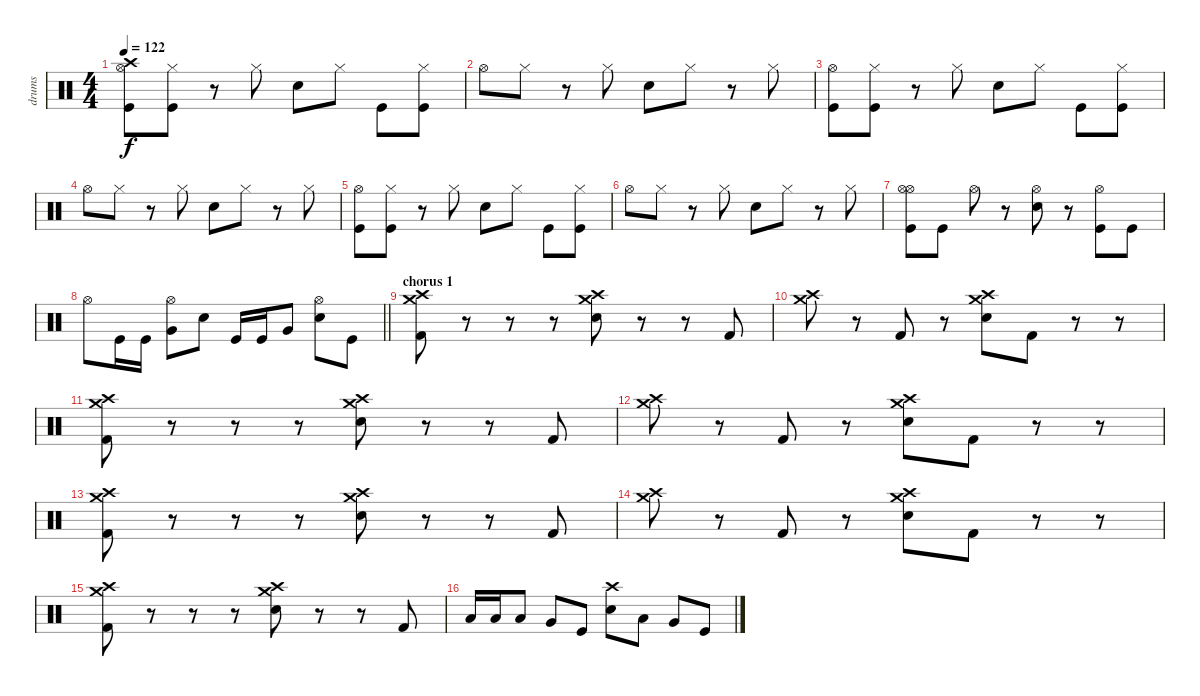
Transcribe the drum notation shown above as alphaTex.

\track ("drums" "drums") {instrument percussion}
\staff {score}
\articulation defaults
\ts (4 4)
\tempo 122
\clef neutral
\ks c
("Crash high (hit)" "Hi-Hat (open)" "Kick (hit)").8{dy f} ("Hi-Hat (closed)" "Kick (hit)").8 r.8 "Hi-Hat (closed)".8 "Electric Snare (hit)".8 "Hi-Hat (closed)".8 "Kick (hit)".8 ("Hi-Hat (closed)" "Kick (hit)").8 |
"Hi-Hat (open)".8 "Hi-Hat (closed)".8 r.8 "Hi-Hat (closed)".8 "Electric Snare (hit)".8 "Hi-Hat (closed)".8 r.8 "Hi-Hat (closed)".8 |
("Hi-Hat (open)" "Kick (hit)").8 ("Hi-Hat (closed)" "Kick (hit)").8 r.8 "Hi-Hat (closed)".8 "Electric Snare (hit)".8 "Hi-Hat (closed)".8 "Kick (hit)".8 ("Hi-Hat (closed)" "Kick (hit)").8 |
"Hi-Hat (open)".8 "Hi-Hat (closed)".8 r.8 "Hi-Hat (closed)".8 "Electric Snare (hit)".8 "Hi-Hat (closed)".8 r.8 "Hi-Hat (closed)".8 |
("Hi-Hat (open)" "Kick (hit)").8 ("Hi-Hat (closed)" "Kick (hit)").8 r.8 "Hi-Hat (closed)".8 "Electric Snare (hit)".8 "Hi-Hat (closed)".8 "Kick (hit)".8 ("Hi-Hat (closed)" "Kick (hit)").8 |
"Hi-Hat (open)".8 "Hi-Hat (closed)".8 r.8 "Hi-Hat (closed)".8 "Electric Snare (hit)".8 "Hi-Hat (closed)".8 r.8 "Hi-Hat (closed)".8 |
("Hi-Hat (open)" "Hi-Hat (open)" "Kick (hit)").8 "Kick (hit)".8 "Hi-Hat (open)".8 r.8 ("Hi-Hat (open)" "Electric Snare (hit)").8 r.8 ("Hi-Hat (open)" "Kick (hit)").8 "Kick (hit)".8 |
\barLineRight lightlight "Hi-Hat (open)".8 "Kick (hit)".16 "Kick (hit)".16
("Hi-Hat (open)" "Very Low Tom (hit)").8 "Electric Snare (hit)".8 "Kick (hit)".16 "Kick (hit)".16 "Very Low Tom (hit)".8 ("Hi-Hat (open)" "Electric Snare (hit)").8 "Kick (hit)".8 |
\section ("" "chorus 1")
("Crash medium (hit)" "Crash high (hit)" "Kick (hit) 2").8 r.8 r.8 r.8 ("Crash medium (hit)" "Crash high (hit)" "Electric Snare (hit)").8 r.8 r.8 "Kick (hit) 2".8 |
("Crash medium (hit)" "Crash high (hit)").8 r.8 "Kick (hit) 2".8 r.8 ("Crash medium (hit)" "Crash high (hit)" "Electric Snare (hit)").8 "Kick (hit) 2".8 r.8 r.8 |
("Crash medium (hit)" "Crash high (hit)" "Kick (hit) 2").8 r.8 r.8 r.8 ("Crash medium (hit)" "Crash high (hit)" "Electric Snare (hit)").8 r.8 r.8 "Kick (hit) 2".8 |
("Crash medium (hit)" "Crash high (hit)").8 r.8 "Kick (hit) 2".8 r.8 ("Crash medium (hit)" "Crash high (hit)" "Electric Snare (hit)").8 "Kick (hit) 2".8 r.8 r.8 |
("Crash medium (hit)" "Crash high (hit)" "Kick (hit) 2").8 r.8 r.8 r.8 ("Crash medium (hit)" "Crash high (hit)" "Electric Snare (hit)").8 r.8 r.8 "Kick (hit) 2".8 |
("Crash medium (hit)" "Crash high (hit)").8 r.8 "Kick (hit) 2".8 r.8 ("Crash medium (hit)" "Crash high (hit)" "Electric Snare (hit)").8 "Kick (hit) 2".8 r.8 r.8 |
("Crash medium (hit)" "Crash high (hit)" "Kick (hit) 2").8 r.8 r.8 r.8 ("Crash medium (hit)" "Crash high (hit)" "Electric Snare (hit)").8 r.8 r.8 "Kick (hit) 2".8 |
"Low Tom (hit)".16 "Low Tom (hit)".16 "Low Tom (hit)".8 "Very Low Tom (hit)".8 "Kick (hit)".8 ("Crash high (hit)" "Electric Snare (hit)").8 "Low Tom (hit)".8 "Very Low Tom (hit)".8 "Kick (hit)".8
